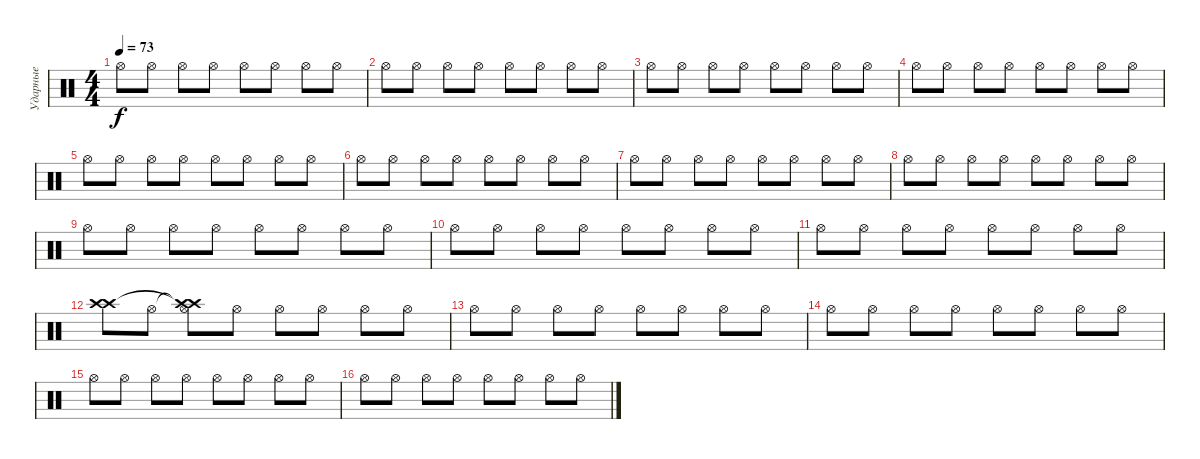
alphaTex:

\track ("Ударные" "Ударные") {instrument percussion}
\staff {score}
\articulation defaults
\ts (4 4)
\tempo 73
\clef neutral
\ks c "Hi-Hat (open)".8{dy f} "Hi-Hat (open)".8 "Hi-Hat (open)".8 "Hi-Hat (open)".8 "Hi-Hat (open)".8 "Hi-Hat (open)".8 "Hi-Hat (open)".8 "Hi-Hat (open)".8
|
"Hi-Hat (open)".8 "Hi-Hat (open)".8 "Hi-Hat (open)".8 "Hi-Hat (open)".8 "Hi-Hat (open)".8 "Hi-Hat (open)".8 "Hi-Hat (open)".8 "Hi-Hat (open)".8 |
"Hi-Hat (open)".8 "Hi-Hat (open)".8 "Hi-Hat (open)".8 "Hi-Hat (open)".8 "Hi-Hat (open)".8 "Hi-Hat (open)".8 "Hi-Hat (open)".8 "Hi-Hat (open)".8 |
"Hi-Hat (open)".8 "Hi-Hat (open)".8 "Hi-Hat (open)".8 "Hi-Hat (open)".8 "Hi-Hat (open)".8 "Hi-Hat (open)".8 "Hi-Hat (open)".8 "Hi-Hat (open)".8 |
"Hi-Hat (open)".8 "Hi-Hat (open)".8 "Hi-Hat (open)".8 "Hi-Hat (open)".8 "Hi-Hat (open)".8 "Hi-Hat (open)".8 "Hi-Hat (open)".8 "Hi-Hat (open)".8 |
"Hi-Hat (open)".8 "Hi-Hat (open)".8 "Hi-Hat (open)".8 "Hi-Hat (open)".8 "Hi-Hat (open)".8 "Hi-Hat (open)".8 "Hi-Hat (open)".8 "Hi-Hat (open)".8 |
"Hi-Hat (open)".8 "Hi-Hat (open)".8 "Hi-Hat (open)".8 "Hi-Hat (open)".8 "Hi-Hat (open)".8 "Hi-Hat (open)".8 "Hi-Hat (open)".8 "Hi-Hat (open)".8 |
"Hi-Hat (open)".8 "Hi-Hat (open)".8 "Hi-Hat (open)".8 "Hi-Hat (open)".8 "Hi-Hat (open)".8 "Hi-Hat (open)".8 "Hi-Hat (open)".8 "Hi-Hat (open)".8 |
"Hi-Hat (open)".8 "Hi-Hat (open)".8 "Hi-Hat (open)".8 "Hi-Hat (open)".8 "Hi-Hat (open)".8 "Hi-Hat (open)".8 "Hi-Hat (open)".8 "Hi-Hat (open)".8 |
"Hi-Hat (open)".8 "Hi-Hat (open)".8 "Hi-Hat (open)".8 "Hi-Hat (open)".8 "Hi-Hat (open)".8 "Hi-Hat (open)".8 "Hi-Hat (open)".8 "Hi-Hat (open)".8 |
"Hi-Hat (open)".8 "Hi-Hat (open)".8 "Hi-Hat (open)".8 "Hi-Hat (open)".8 "Hi-Hat (open)".8 "Hi-Hat (open)".8 "Hi-Hat (open)".8 "Hi-Hat (open)".8 |
("Crash high (hit)" "Crash high (hit)").8 "Hi-Hat (open)".8 ("Crash high (hit)"{t} "Crash high (hit)"{t} "Hi-Hat (open)").8 "Hi-Hat (open)".8 "Hi-Hat (open)".8 "Hi-Hat (open)".8 "Hi-Hat (open)".8 "Hi-Hat (open)".8 |
"Hi-Hat (open)".8 "Hi-Hat (open)".8 "Hi-Hat (open)".8 "Hi-Hat (open)".8 "Hi-Hat (open)".8 "Hi-Hat (open)".8 "Hi-Hat (open)".8 "Hi-Hat (open)".8 |
"Hi-Hat (open)".8 "Hi-Hat (open)".8 "Hi-Hat (open)".8 "Hi-Hat (open)".8 "Hi-Hat (open)".8 "Hi-Hat (open)".8 "Hi-Hat (open)".8 "Hi-Hat (open)".8 |
"Hi-Hat (open)".8 "Hi-Hat (open)".8 "Hi-Hat (open)".8 "Hi-Hat (open)".8 "Hi-Hat (open)".8 "Hi-Hat (open)".8 "Hi-Hat (open)".8 "Hi-Hat (open)".8 |
"Hi-Hat (open)".8 "Hi-Hat (open)".8 "Hi-Hat (open)".8 "Hi-Hat (open)".8 "Hi-Hat (open)".8 "Hi-Hat (open)".8 "Hi-Hat (open)".8 "Hi-Hat (open)".8
